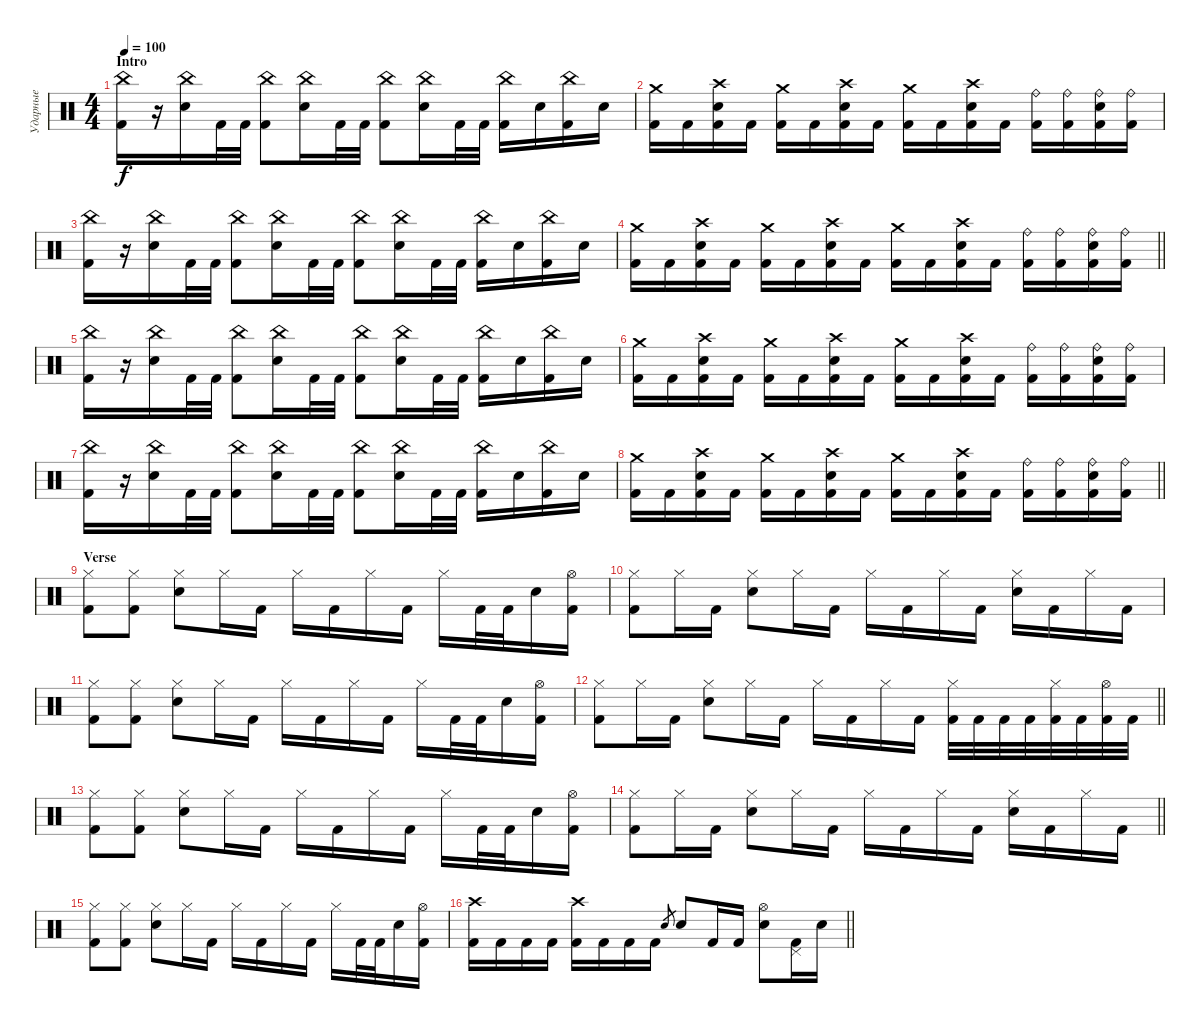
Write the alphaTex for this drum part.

\track ("Ударные" "Ударные") {instrument percussion}
\staff {score}
\articulation defaults
\ts (4 4)
\section ("" "Intro")
\tempo 100
\clef neutral
\ks c
("China (hit)" "Kick (hit) 2").16{dy f} r.16 ("China (hit)" "Electric Snare (hit)").16 "Kick (hit) 2".32 "Kick (hit) 2".32 ("China (hit)" "Kick (hit) 2").8 ("China (hit)" "Electric Snare (hit)").16 "Kick (hit) 2".32 "Kick (hit) 2".32 ("China (hit)" "Kick (hit) 2").8 ("China (hit)" "Electric Snare (hit)").16 "Kick (hit) 2".32 "Kick (hit) 2".32 ("China (hit)" "Kick (hit) 2").16 "Electric Snare (hit)".16 ("China (hit)" "Kick (hit) 2").16 "Electric Snare (hit)".16 |
("Crash medium (hit)" "Kick (hit) 2").16 "Kick (hit) 2".16 ("Crash high (hit)" "Electric Snare (hit)" "Kick (hit) 2").16 "Kick (hit) 2".16 ("Crash medium (hit)" "Kick (hit) 2").16 "Kick (hit) 2".16 ("Crash high (hit)" "Electric Snare (hit)" "Kick (hit) 2").16 "Kick (hit) 2".16 ("Crash medium (hit)" "Kick (hit) 2").16 "Kick (hit) 2".16 ("Crash high (hit)" "Electric Snare (hit)" "Kick (hit) 2").16 "Kick (hit) 2".16 ("Ride (bell)" "Kick (hit) 2").16 ("Ride (bell)" "Kick (hit) 2").16 ("Ride (bell)" "Electric Snare (hit)" "Kick (hit) 2").16 ("Ride (bell)" "Kick (hit) 2").16 |
("China (hit)" "Kick (hit) 2").16 r.16 ("China (hit)" "Electric Snare (hit)").16 "Kick (hit) 2".32 "Kick (hit) 2".32 ("China (hit)" "Kick (hit) 2").8 ("China (hit)" "Electric Snare (hit)").16 "Kick (hit) 2".32 "Kick (hit) 2".32 ("China (hit)" "Kick (hit) 2").8 ("China (hit)" "Electric Snare (hit)").16 "Kick (hit) 2".32 "Kick (hit) 2".32 ("China (hit)" "Kick (hit) 2").16 "Electric Snare (hit)".16 ("China (hit)" "Kick (hit) 2").16 "Electric Snare (hit)".16 |
\barLineRight lightlight
("Crash medium (hit)" "Kick (hit) 2").16 "Kick (hit) 2".16 ("Crash high (hit)" "Electric Snare (hit)" "Kick (hit) 2").16 "Kick (hit) 2".16 ("Crash medium (hit)" "Kick (hit) 2").16 "Kick (hit) 2".16 ("Crash high (hit)" "Electric Snare (hit)" "Kick (hit) 2").16 "Kick (hit) 2".16 ("Crash medium (hit)" "Kick (hit) 2").16 "Kick (hit) 2".16 ("Crash high (hit)" "Electric Snare (hit)" "Kick (hit) 2").16 "Kick (hit) 2".16 ("Ride (bell)" "Kick (hit) 2").16 ("Ride (bell)" "Kick (hit) 2").16 ("Ride (bell)" "Electric Snare (hit)" "Kick (hit) 2").16 ("Ride (bell)" "Kick (hit) 2").16 |
("China (hit)" "Kick (hit) 2").16 r.16 ("China (hit)" "Electric Snare (hit)").16 "Kick (hit) 2".32 "Kick (hit) 2".32 ("China (hit)" "Kick (hit) 2").8 ("China (hit)" "Electric Snare (hit)").16 "Kick (hit) 2".32 "Kick (hit) 2".32 ("China (hit)" "Kick (hit) 2").8 ("China (hit)" "Electric Snare (hit)").16 "Kick (hit) 2".32 "Kick (hit) 2".32 ("China (hit)" "Kick (hit) 2").16 "Electric Snare (hit)".16 ("China (hit)" "Kick (hit) 2").16 "Electric Snare (hit)".16 |
("Crash medium (hit)" "Kick (hit) 2").16 "Kick (hit) 2".16 ("Crash high (hit)" "Electric Snare (hit)" "Kick (hit) 2").16 "Kick (hit) 2".16 ("Crash medium (hit)" "Kick (hit) 2").16 "Kick (hit) 2".16 ("Crash high (hit)" "Electric Snare (hit)" "Kick (hit) 2").16 "Kick (hit) 2".16 ("Crash medium (hit)" "Kick (hit) 2").16 "Kick (hit) 2".16 ("Crash high (hit)" "Electric Snare (hit)" "Kick (hit) 2").16 "Kick (hit) 2".16 ("Ride (bell)" "Kick (hit) 2").16 ("Ride (bell)" "Kick (hit) 2").16 ("Ride (bell)" "Electric Snare (hit)" "Kick (hit) 2").16 ("Ride (bell)" "Kick (hit) 2").16 |
("China (hit)" "Kick (hit) 2").16 r.16 ("China (hit)" "Electric Snare (hit)").16 "Kick (hit) 2".32 "Kick (hit) 2".32 ("China (hit)" "Kick (hit) 2").8 ("China (hit)" "Electric Snare (hit)").16 "Kick (hit) 2".32 "Kick (hit) 2".32 ("China (hit)" "Kick (hit) 2").8 ("China (hit)" "Electric Snare (hit)").16 "Kick (hit) 2".32 "Kick (hit) 2".32 ("China (hit)" "Kick (hit) 2").16 "Electric Snare (hit)".16 ("China (hit)" "Kick (hit) 2").16 "Electric Snare (hit)".16 |
\barLineRight lightlight
("Crash medium (hit)" "Kick (hit) 2").16 "Kick (hit) 2".16 ("Crash high (hit)" "Electric Snare (hit)" "Kick (hit) 2").16 "Kick (hit) 2".16 ("Crash medium (hit)" "Kick (hit) 2").16 "Kick (hit) 2".16 ("Crash high (hit)" "Electric Snare (hit)" "Kick (hit) 2").16 "Kick (hit) 2".16 ("Crash medium (hit)" "Kick (hit) 2").16 "Kick (hit) 2".16 ("Crash high (hit)" "Electric Snare (hit)" "Kick (hit) 2").16 "Kick (hit) 2".16 ("Ride (bell)" "Kick (hit) 2").16 ("Ride (bell)" "Kick (hit) 2").16 ("Ride (bell)" "Electric Snare (hit)" "Kick (hit) 2").16 ("Ride (bell)" "Kick (hit) 2").16 |
\section ("" "Verse")
("Hi-Hat (closed)" "Kick (hit) 2").8 ("Hi-Hat (closed)" "Kick (hit) 2").8 ("Hi-Hat (closed)" "Electric Snare (hit)").8 "Hi-Hat (closed)".16 "Kick (hit) 2".16 "Hi-Hat (closed)".16 "Kick (hit) 2".16 "Hi-Hat (closed)".16 "Kick (hit) 2".16 "Hi-Hat (closed)".16 "Kick (hit) 2".32 "Kick (hit) 2".32 "Electric Snare (hit)".16 ("Hi-Hat (open)" "Kick (hit) 2").16 |
("Hi-Hat (closed)" "Kick (hit) 2").8 "Hi-Hat (closed)".16 "Kick (hit) 2".16 ("Hi-Hat (closed)" "Electric Snare (hit)").8 "Hi-Hat (closed)".16 "Kick (hit) 2".16 "Hi-Hat (closed)".16 "Kick (hit) 2".16 "Hi-Hat (closed)".16 "Kick (hit) 2".16 ("Hi-Hat (closed)" "Electric Snare (hit)").16 "Kick (hit) 2".16 "Hi-Hat (closed)".16 "Kick (hit) 2".16 |
("Hi-Hat (closed)" "Kick (hit) 2").8 ("Hi-Hat (closed)" "Kick (hit) 2").8 ("Hi-Hat (closed)" "Electric Snare (hit)").8 "Hi-Hat (closed)".16 "Kick (hit) 2".16 "Hi-Hat (closed)".16 "Kick (hit) 2".16 "Hi-Hat (closed)".16 "Kick (hit) 2".16 "Hi-Hat (closed)".16 "Kick (hit) 2".32 "Kick (hit) 2".32 "Electric Snare (hit)".16 ("Hi-Hat (open)" "Kick (hit) 2").16 |
\barLineRight lightlight
("Hi-Hat (closed)" "Kick (hit) 2").8 "Hi-Hat (closed)".16 "Kick (hit) 2".16 ("Hi-Hat (closed)" "Electric Snare (hit)").8 "Hi-Hat (closed)".16 "Kick (hit) 2".16 "Hi-Hat (closed)".16 "Kick (hit) 2".16 "Hi-Hat (closed)".16 "Kick (hit) 2".16 ("Hi-Hat (closed)" "Kick (hit) 2").32 "Kick (hit) 2".32 "Kick (hit) 2".32 "Kick (hit) 2".32 ("Hi-Hat (closed)" "Kick (hit) 2").32 "Kick (hit) 2".32 ("Hi-Hat (open)" "Kick (hit) 2").32 "Kick (hit) 2".32 |
("Hi-Hat (closed)" "Kick (hit) 2").8 ("Hi-Hat (closed)" "Kick (hit) 2").8 ("Hi-Hat (closed)" "Electric Snare (hit)").8 "Hi-Hat (closed)".16 "Kick (hit) 2".16 "Hi-Hat (closed)".16 "Kick (hit) 2".16 "Hi-Hat (closed)".16 "Kick (hit) 2".16 "Hi-Hat (closed)".16 "Kick (hit) 2".32 "Kick (hit) 2".32 "Electric Snare (hit)".16 ("Hi-Hat (open)" "Kick (hit) 2").16 |
\barLineRight lightlight
("Hi-Hat (closed)" "Kick (hit) 2").8 "Hi-Hat (closed)".16 "Kick (hit) 2".16 ("Hi-Hat (closed)" "Electric Snare (hit)").8 "Hi-Hat (closed)".16 "Kick (hit) 2".16 "Hi-Hat (closed)".16 "Kick (hit) 2".16 "Hi-Hat (closed)".16 "Kick (hit) 2".16 ("Hi-Hat (closed)" "Electric Snare (hit)").16 "Kick (hit) 2".16 "Hi-Hat (closed)".16 "Kick (hit) 2".16 |
("Hi-Hat (closed)" "Kick (hit) 2").8 ("Hi-Hat (closed)" "Kick (hit) 2").8 ("Hi-Hat (closed)" "Electric Snare (hit)").8 "Hi-Hat (closed)".16 "Kick (hit) 2".16 "Hi-Hat (closed)".16 "Kick (hit) 2".16 "Hi-Hat (closed)".16 "Kick (hit) 2".16 "Hi-Hat (closed)".16 "Kick (hit) 2".32 "Kick (hit) 2".32 "Electric Snare (hit)".16 ("Hi-Hat (open)" "Kick (hit) 2").16 |
\barLineRight lightlight
("Crash high (hit)" "Kick (hit) 2").16 "Kick (hit) 2".16 "Kick (hit) 2".16 "Kick (hit) 2".16 ("Crash high (hit)" "Kick (hit) 2").16 "Kick (hit) 2".16 "Kick (hit) 2".16 "Kick (hit) 2".16 "Electric Snare (hit)".8{gr} "Electric Snare (hit)".8 "Kick (hit) 2".16 "Kick (hit) 2".16 ("Hi-Hat (open)" "Electric Snare (hit)").8 ("Pedal Hi-Hat (hit)" "Kick (hit) 2").16 "Electric Snare (hit)".16
